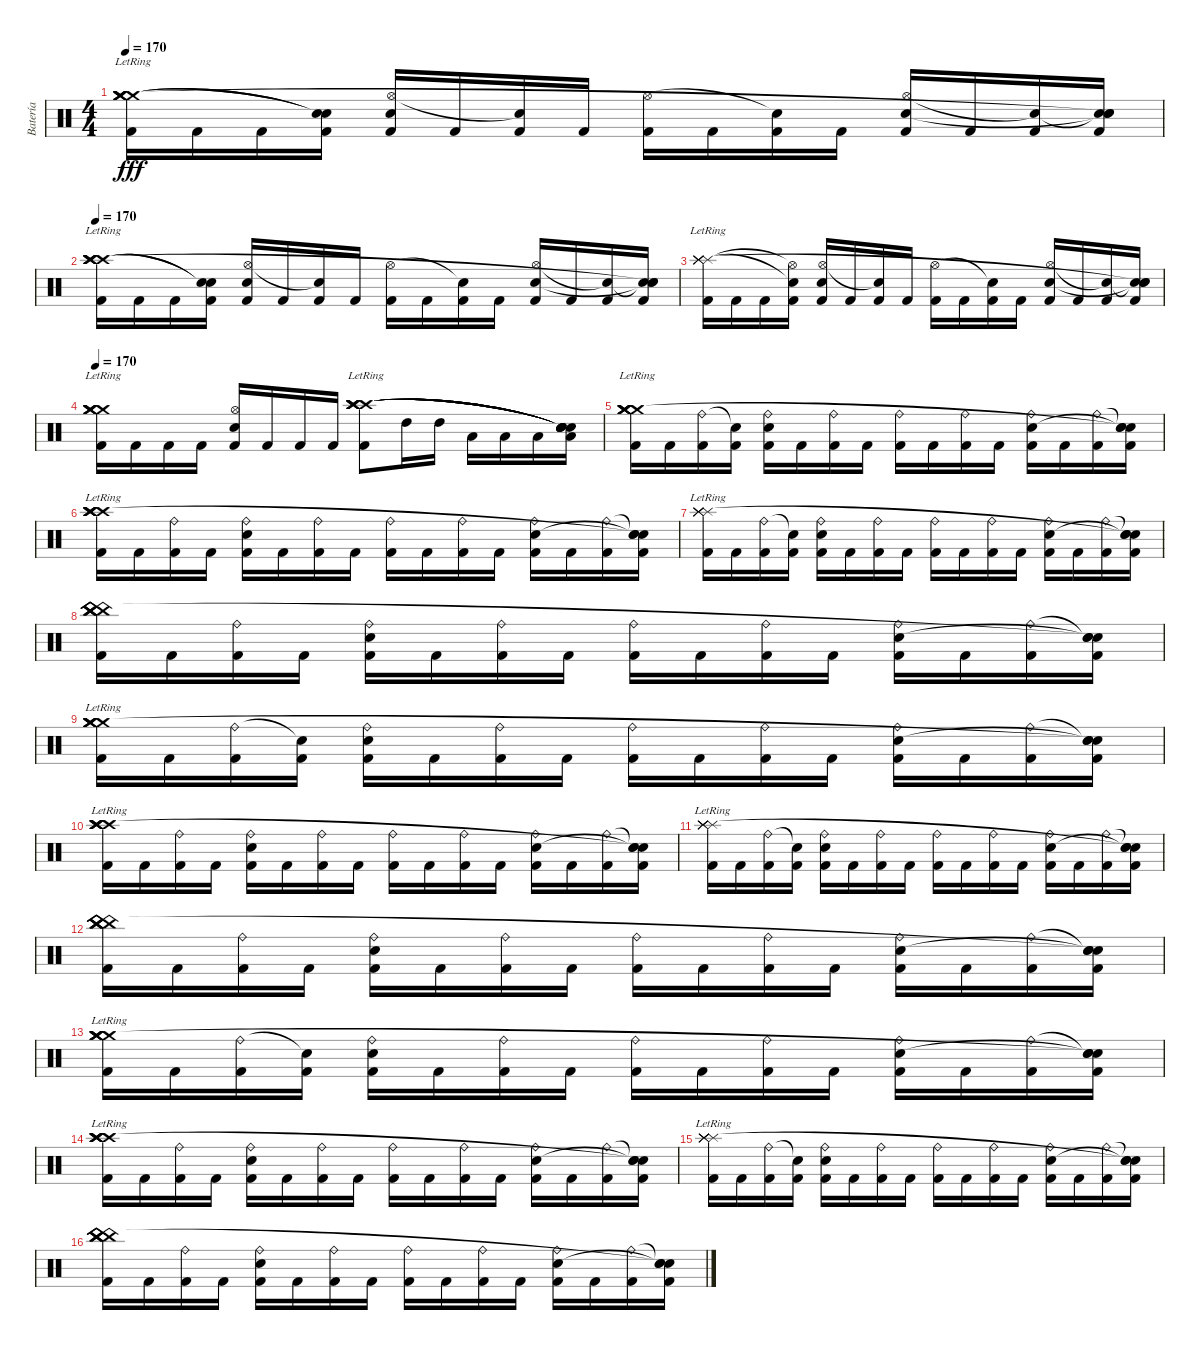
\track ("Batería" "Batería") {instrument percussion}
\staff {score}
\articulation defaults
\ts (4 4)
\tempo 170
\clef neutral
\ks c
("Kick (hit) 2" "Crash medium (hit)"{lr} "Crash medium (hit)"{lr} "Crash medium (hit)"{lr} "Crash medium (hit)"{lr} "Crash medium (hit)"{lr}).16{dy fff} "Kick (hit) 2".16 "Kick (hit) 2".16 ("Kick (hit) 2" "Snare (hit)"{t} "Snare (hit)"{t}).16 ("Kick (hit) 2" "Hi-Hat (open)" "Electric Snare (hit)").16 "Kick (hit) 2".16 ("Kick (hit) 2" "Snare (hit)"{t}).16 "Kick (hit) 2".16 ("Kick (hit) 2" "Hi-Hat (open)").16 "Kick (hit) 2".16 ("Kick (hit) 2" "Snare (hit)"{t}).16 "Kick (hit) 2".16 ("Kick (hit) 2" "Hi-Hat (open)" "Electric Snare (hit)").16 "Kick (hit) 2".16 ("Kick (hit) 2" "Snare (hit)"{t}).16 ("Kick (hit) 2" "Snare (hit)"{t} "Snare (hit)"{t} "Snare (hit)"{t}).16 |
\tempo 170
("Kick (hit) 2" "Crash high (hit)"{lr} "Crash high (hit)"{lr} "Crash high (hit)"{lr} "Crash high (hit)"{lr} "Crash high (hit)"{lr}).16 "Kick (hit) 2".16 "Kick (hit) 2".16 ("Kick (hit) 2" "Snare (hit)"{t} "Snare (hit)"{t}).16 ("Kick (hit) 2" "Hi-Hat (open)" "Electric Snare (hit)").16 "Kick (hit) 2".16 ("Kick (hit) 2" "Snare (hit)"{t}).16 "Kick (hit) 2".16 ("Kick (hit) 2" "Hi-Hat (open)").16 "Kick (hit) 2".16 ("Kick (hit) 2" "Snare (hit)"{t}).16 "Kick (hit) 2".16 ("Kick (hit) 2" "Hi-Hat (open)" "Electric Snare (hit)").16 "Kick (hit) 2".16 ("Kick (hit) 2" "Snare (hit)"{t}).16 ("Kick (hit) 2" "Snare (hit)"{t} "Snare (hit)"{t} "Snare (hit)"{t}).16 |
("Kick (hit) 2"{lr} "Splash (hit)"{lr} "Splash (hit)"{lr} "Splash (hit)"{lr} "Splash (hit)"{lr} "Splash (hit)"{lr}).16 "Kick (hit) 2".16 "Kick (hit) 2".16 ("Kick (hit) 2" "Hi-Hat (open)"{t} "Snare (hit)"{t}).16 ("Kick (hit) 2" "Hi-Hat (open)" "Electric Snare (hit)").16 "Kick (hit) 2".16 ("Kick (hit) 2" "Snare (hit)"{t}).16 "Kick (hit) 2".16 ("Kick (hit) 2" "Hi-Hat (open)").16 "Kick (hit) 2".16 ("Kick (hit) 2" "Snare (hit)"{t}).16 "Kick (hit) 2".16 ("Kick (hit) 2" "Hi-Hat (open)" "Electric Snare (hit)").16 "Kick (hit) 2".16 ("Kick (hit) 2" "Snare (hit)"{t}).16 ("Kick (hit) 2" "Snare (hit)"{t} "Snare (hit)"{t} "Snare (hit)"{t}).16 |
\tempo 170
("Kick (hit) 2" "Crash medium (hit)"{lr} "Crash medium (hit)"{lr} "Crash medium (hit)"{lr} "Crash medium (hit)"{lr} "Crash medium (hit)"{lr}).16 "Kick (hit) 2".16 "Kick (hit) 2".16 "Kick (hit) 2".16 ("Kick (hit) 2" "Hi-Hat (open)" "Electric Snare (hit)").16 "Kick (hit) 2".16 "Kick (hit) 2".16 "Kick (hit) 2".16 ("Kick (hit) 2"{lr} "Crash high (hit)"{lr} "Crash high (hit)"{lr} "Crash high (hit)"{lr} "Crash high (hit)"{lr} "Crash high (hit)"{lr}).8 "High Tom (hit)".16 "High Tom (hit)".16 "Low Tom (hit)".16 "Low Tom (hit)".16 "Low Floor Tom (hit)".16 ("Low Floor Tom (hit)" "Snare (hit)"{t} "Snare (hit)"{t} "Snare (hit)"{t} "Snare (hit)"{t} "Snare (hit)"{t}).16 |
("Kick (hit) 2" "Crash medium (hit)"{lr} "Crash medium (hit)"{lr} "Crash medium (hit)"{lr} "Crash medium (hit)"{lr} "Crash medium (hit)"{lr}).16 "Kick (hit) 2".16 ("Kick (hit) 2" "Ride (bell)").16 ("Kick (hit) 2" "Snare (hit)"{t}).16 ("Kick (hit) 2" "Ride (bell)" "Electric Snare (hit)").16 "Kick (hit) 2".16 ("Kick (hit) 2" "Ride (bell)").16 "Kick (hit) 2".16 ("Kick (hit) 2" "Ride (bell)").16 "Kick (hit) 2".16 ("Kick (hit) 2" "Ride (bell)").16 "Kick (hit) 2".16 ("Kick (hit) 2" "Ride (bell)" "Electric Snare (hit)").16 "Kick (hit) 2".16 ("Kick (hit) 2" "Ride (bell)").16 ("Kick (hit) 2" "Snare (hit)"{t} "Snare (hit)"{t} "Snare (hit)"{t}).16 |
("Kick (hit) 2" "Crash high (hit)"{lr} "Crash high (hit)"{lr} "Crash high (hit)"{lr} "Crash high (hit)"{lr} "Crash high (hit)"{lr}).16 "Kick (hit) 2".16 ("Kick (hit) 2" "Ride (bell)").16 "Kick (hit) 2".16 ("Kick (hit) 2" "Ride (bell)" "Electric Snare (hit)").16 "Kick (hit) 2".16 ("Kick (hit) 2" "Ride (bell)").16 "Kick (hit) 2".16 ("Kick (hit) 2" "Ride (bell)").16 "Kick (hit) 2".16 ("Kick (hit) 2" "Ride (bell)").16 "Kick (hit) 2".16 ("Kick (hit) 2" "Ride (bell)" "Electric Snare (hit)").16 "Kick (hit) 2".16 ("Kick (hit) 2" "Ride (bell)").16 ("Kick (hit) 2" "Snare (hit)"{t} "Snare (hit)"{t} "Snare (hit)"{t}).16 |
("Kick (hit) 2" "Splash (hit)"{lr} "Splash (hit)"{lr} "Splash (hit)"{lr} "Splash (hit)"{lr} "Splash (hit)"{lr}).16 "Kick (hit) 2".16 ("Kick (hit) 2" "Ride (bell)").16 ("Kick (hit) 2" "Snare (hit)"{t}).16 ("Kick (hit) 2" "Ride (bell)" "Electric Snare (hit)").16 "Kick (hit) 2".16 ("Kick (hit) 2" "Ride (bell)").16 "Kick (hit) 2".16 ("Kick (hit) 2" "Ride (bell)").16 "Kick (hit) 2".16 ("Kick (hit) 2" "Ride (bell)").16 "Kick (hit) 2".16 ("Kick (hit) 2" "Ride (bell)" "Electric Snare (hit)").16 "Kick (hit) 2".16 ("Kick (hit) 2" "Ride (bell)").16 ("Kick (hit) 2" "Snare (hit)"{t} "Snare (hit)"{t} "Snare (hit)"{t}).16 |
("Kick (hit) 2" "China (hit)" "China (hit)" "China (hit)" "China (hit)" "China (hit)").16 "Kick (hit) 2".16 ("Kick (hit) 2" "Ride (bell)").16 "Kick (hit) 2".16 ("Kick (hit) 2" "Ride (bell)" "Electric Snare (hit)").16 "Kick (hit) 2".16 ("Kick (hit) 2" "Ride (bell)").16 "Kick (hit) 2".16 ("Kick (hit) 2" "Ride (bell)").16 "Kick (hit) 2".16 ("Kick (hit) 2" "Ride (bell)").16 "Kick (hit) 2".16 ("Kick (hit) 2" "Ride (bell)" "Electric Snare (hit)").16 "Kick (hit) 2".16 ("Kick (hit) 2" "Ride (bell)").16 ("Kick (hit) 2" "Snare (hit)"{t} "Snare (hit)"{t} "Snare (hit)"{t}).16 |
("Kick (hit) 2" "Crash medium (hit)"{lr} "Crash medium (hit)"{lr} "Crash medium (hit)"{lr} "Crash medium (hit)"{lr} "Crash medium (hit)"{lr}).16 "Kick (hit) 2".16 ("Kick (hit) 2" "Ride (bell)").16 ("Kick (hit) 2" "Snare (hit)"{t}).16 ("Kick (hit) 2" "Ride (bell)" "Electric Snare (hit)").16 "Kick (hit) 2".16 ("Kick (hit) 2" "Ride (bell)").16 "Kick (hit) 2".16 ("Kick (hit) 2" "Ride (bell)").16 "Kick (hit) 2".16 ("Kick (hit) 2" "Ride (bell)").16 "Kick (hit) 2".16 ("Kick (hit) 2" "Ride (bell)" "Electric Snare (hit)").16 "Kick (hit) 2".16 ("Kick (hit) 2" "Ride (bell)").16 ("Kick (hit) 2" "Snare (hit)"{t} "Snare (hit)"{t} "Snare (hit)"{t}).16 |
("Kick (hit) 2" "Crash high (hit)"{lr} "Crash high (hit)"{lr} "Crash high (hit)"{lr} "Crash high (hit)"{lr} "Crash high (hit)"{lr}).16 "Kick (hit) 2".16 ("Kick (hit) 2" "Ride (bell)").16 "Kick (hit) 2".16 ("Kick (hit) 2" "Ride (bell)" "Electric Snare (hit)").16 "Kick (hit) 2".16 ("Kick (hit) 2" "Ride (bell)").16 "Kick (hit) 2".16 ("Kick (hit) 2" "Ride (bell)").16 "Kick (hit) 2".16 ("Kick (hit) 2" "Ride (bell)").16 "Kick (hit) 2".16 ("Kick (hit) 2" "Ride (bell)" "Electric Snare (hit)").16 "Kick (hit) 2".16 ("Kick (hit) 2" "Ride (bell)").16 ("Kick (hit) 2" "Snare (hit)"{t} "Snare (hit)"{t} "Snare (hit)"{t}).16 |
("Kick (hit) 2" "Splash (hit)"{lr} "Splash (hit)"{lr} "Splash (hit)"{lr} "Splash (hit)"{lr} "Splash (hit)"{lr}).16 "Kick (hit) 2".16 ("Kick (hit) 2" "Ride (bell)").16 ("Kick (hit) 2" "Snare (hit)"{t}).16 ("Kick (hit) 2" "Ride (bell)" "Electric Snare (hit)").16 "Kick (hit) 2".16 ("Kick (hit) 2" "Ride (bell)").16 "Kick (hit) 2".16 ("Kick (hit) 2" "Ride (bell)").16 "Kick (hit) 2".16 ("Kick (hit) 2" "Ride (bell)").16 "Kick (hit) 2".16 ("Kick (hit) 2" "Ride (bell)" "Electric Snare (hit)").16 "Kick (hit) 2".16 ("Kick (hit) 2" "Ride (bell)").16 ("Kick (hit) 2" "Snare (hit)"{t} "Snare (hit)"{t} "Snare (hit)"{t}).16 |
("Kick (hit) 2" "China (hit)" "China (hit)" "China (hit)" "China (hit)" "China (hit)").16 "Kick (hit) 2".16 ("Kick (hit) 2" "Ride (bell)").16 "Kick (hit) 2".16 ("Kick (hit) 2" "Ride (bell)" "Electric Snare (hit)").16 "Kick (hit) 2".16 ("Kick (hit) 2" "Ride (bell)").16 "Kick (hit) 2".16 ("Kick (hit) 2" "Ride (bell)").16 "Kick (hit) 2".16 ("Kick (hit) 2" "Ride (bell)").16 "Kick (hit) 2".16 ("Kick (hit) 2" "Ride (bell)" "Electric Snare (hit)").16 "Kick (hit) 2".16 ("Kick (hit) 2" "Ride (bell)").16 ("Kick (hit) 2" "Snare (hit)"{t} "Snare (hit)"{t} "Snare (hit)"{t}).16 |
("Kick (hit) 2" "Crash medium (hit)"{lr} "Crash medium (hit)"{lr} "Crash medium (hit)"{lr} "Crash medium (hit)"{lr} "Crash medium (hit)"{lr}).16 "Kick (hit) 2".16 ("Kick (hit) 2" "Ride (bell)").16 ("Kick (hit) 2" "Snare (hit)"{t}).16 ("Kick (hit) 2" "Ride (bell)" "Electric Snare (hit)").16 "Kick (hit) 2".16 ("Kick (hit) 2" "Ride (bell)").16 "Kick (hit) 2".16 ("Kick (hit) 2" "Ride (bell)").16 "Kick (hit) 2".16 ("Kick (hit) 2" "Ride (bell)").16 "Kick (hit) 2".16 ("Kick (hit) 2" "Ride (bell)" "Electric Snare (hit)").16 "Kick (hit) 2".16 ("Kick (hit) 2" "Ride (bell)").16 ("Kick (hit) 2" "Snare (hit)"{t} "Snare (hit)"{t} "Snare (hit)"{t}).16 |
("Kick (hit) 2" "Crash high (hit)"{lr} "Crash high (hit)"{lr} "Crash high (hit)"{lr} "Crash high (hit)"{lr} "Crash high (hit)"{lr}).16 "Kick (hit) 2".16 ("Kick (hit) 2" "Ride (bell)").16 "Kick (hit) 2".16 ("Kick (hit) 2" "Ride (bell)" "Electric Snare (hit)").16 "Kick (hit) 2".16 ("Kick (hit) 2" "Ride (bell)").16 "Kick (hit) 2".16 ("Kick (hit) 2" "Ride (bell)").16 "Kick (hit) 2".16 ("Kick (hit) 2" "Ride (bell)").16 "Kick (hit) 2".16 ("Kick (hit) 2" "Ride (bell)" "Electric Snare (hit)").16 "Kick (hit) 2".16 ("Kick (hit) 2" "Ride (bell)").16 ("Kick (hit) 2" "Snare (hit)"{t} "Snare (hit)"{t} "Snare (hit)"{t}).16 |
("Kick (hit) 2" "Splash (hit)"{lr} "Splash (hit)"{lr} "Splash (hit)"{lr} "Splash (hit)"{lr} "Splash (hit)"{lr}).16 "Kick (hit) 2".16 ("Kick (hit) 2" "Ride (bell)").16 ("Kick (hit) 2" "Snare (hit)"{t}).16 ("Kick (hit) 2" "Ride (bell)" "Electric Snare (hit)").16 "Kick (hit) 2".16 ("Kick (hit) 2" "Ride (bell)").16 "Kick (hit) 2".16 ("Kick (hit) 2" "Ride (bell)").16 "Kick (hit) 2".16 ("Kick (hit) 2" "Ride (bell)").16 "Kick (hit) 2".16 ("Kick (hit) 2" "Ride (bell)" "Electric Snare (hit)").16 "Kick (hit) 2".16 ("Kick (hit) 2" "Ride (bell)").16 ("Kick (hit) 2" "Snare (hit)"{t} "Snare (hit)"{t} "Snare (hit)"{t}).16 |
("Kick (hit) 2" "China (hit)" "China (hit)" "China (hit)" "China (hit)" "China (hit)").16 "Kick (hit) 2".16 ("Kick (hit) 2" "Ride (bell)").16 "Kick (hit) 2".16 ("Kick (hit) 2" "Ride (bell)" "Electric Snare (hit)").16 "Kick (hit) 2".16 ("Kick (hit) 2" "Ride (bell)").16 "Kick (hit) 2".16 ("Kick (hit) 2" "Ride (bell)").16 "Kick (hit) 2".16 ("Kick (hit) 2" "Ride (bell)").16 "Kick (hit) 2".16 ("Kick (hit) 2" "Ride (bell)" "Electric Snare (hit)").16 "Kick (hit) 2".16 ("Kick (hit) 2" "Ride (bell)").16 ("Kick (hit) 2" "Snare (hit)"{t} "Snare (hit)"{t} "Snare (hit)"{t}).16
